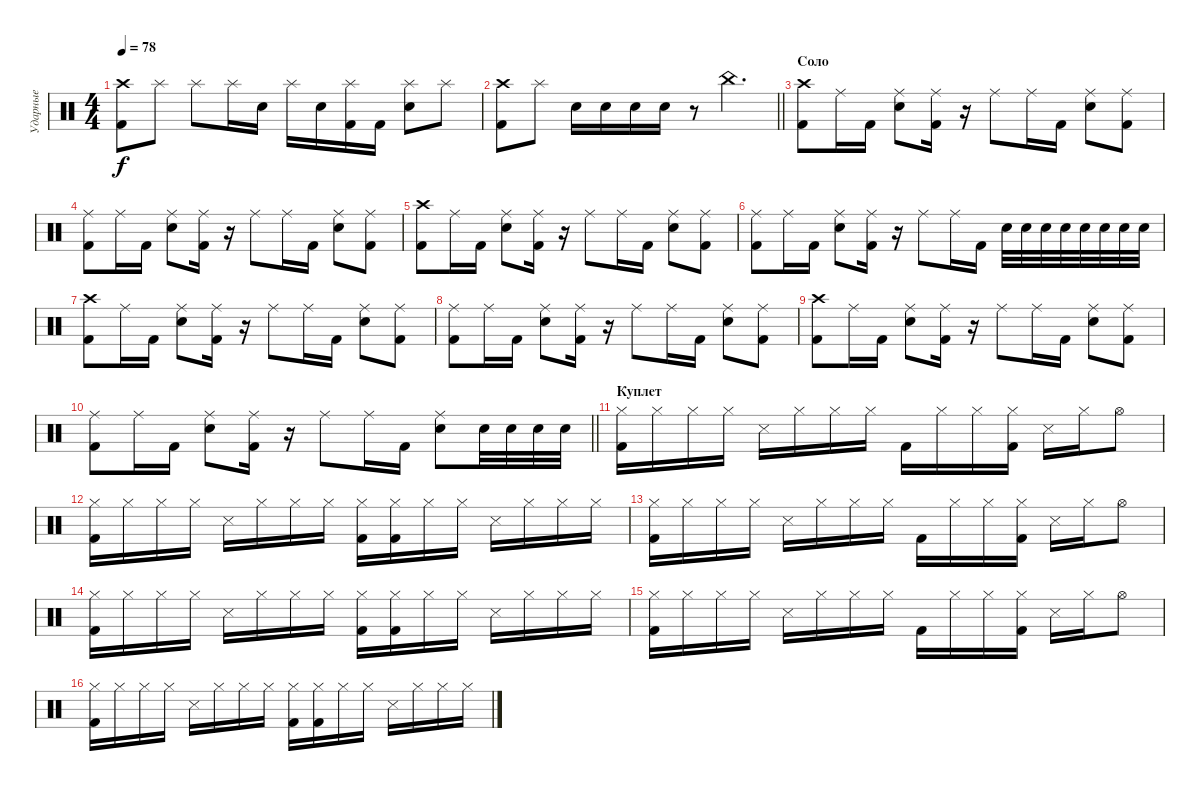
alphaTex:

\track ("Ударные" "Ударные") {instrument percussion}
\staff {score}
\articulation defaults
\ts (4 4)
\tempo 78
\clef neutral
\ks c
("Crash high (hit)" "Kick (hit) 2").8{dy f} "Splash (hit)".8 "Splash (hit)".8 "Splash (hit)".16 "Electric Snare (hit)".16 "Splash (hit)".16 "Electric Snare (hit)".16 ("Splash (hit)" "Kick (hit) 2").16 "Kick (hit) 2".16 ("Splash (hit)" "Electric Snare (hit)").8 "Splash (hit)".8 |
\barLineRight lightlight
("Crash high (hit)" "Kick (hit) 2").8 "Splash (hit)".8 "Electric Snare (hit)".16 "Electric Snare (hit)".16 "Electric Snare (hit)".16 "Electric Snare (hit)".16 r.8 "China (hit)".4{d} |
\section ("" "Соло")
("Crash high (hit)" "Kick (hit) 2").8 "Ride (middle)".16 "Kick (hit) 2".16 ("Ride (middle)" "Electric Snare (hit)").8 ("Ride (middle)" "Kick (hit) 2").16 r.16 "Ride (middle)".8 "Ride (middle)".16 "Kick (hit) 2".16 ("Electric Snare (hit)" "Ride (middle)").8 ("Kick (hit) 2" "Ride (middle)").8 |
("Ride (middle)" "Kick (hit) 2").8 "Ride (middle)".16 "Kick (hit) 2".16 ("Ride (middle)" "Electric Snare (hit)").8 ("Ride (middle)" "Kick (hit) 2").16 r.16 "Ride (middle)".8 "Ride (middle)".16 "Kick (hit) 2".16 ("Electric Snare (hit)" "Ride (middle)").8 ("Kick (hit) 2" "Ride (middle)").8 |
("Crash high (hit)" "Kick (hit) 2").8 "Ride (middle)".16 "Kick (hit) 2".16 ("Ride (middle)" "Electric Snare (hit)").8 ("Ride (middle)" "Kick (hit) 2").16 r.16 "Ride (middle)".8 "Ride (middle)".16 "Kick (hit) 2".16 ("Electric Snare (hit)" "Ride (middle)").8 ("Kick (hit) 2" "Ride (middle)").8 |
("Ride (middle)" "Kick (hit) 2").8 "Ride (middle)".16 "Kick (hit) 2".16 ("Ride (middle)" "Electric Snare (hit)").8 ("Ride (middle)" "Kick (hit) 2").16 r.16 "Ride (middle)".8 "Ride (middle)".16 "Kick (hit) 2".16 "Snare (hit) 2".32 "Snare (hit) 2".32 "Snare (hit) 2".32 "Snare (hit) 2".32 "Snare (hit) 2".32 "Snare (hit) 2".32 "Snare (hit) 2".32 "Snare (hit) 2".32 |
("Crash high (hit)" "Kick (hit) 2").8 "Ride (middle)".16 "Kick (hit) 2".16 ("Ride (middle)" "Electric Snare (hit)").8 ("Ride (middle)" "Kick (hit) 2").16 r.16 "Ride (middle)".8 "Ride (middle)".16 "Kick (hit) 2".16 ("Electric Snare (hit)" "Ride (middle)").8 ("Kick (hit) 2" "Ride (middle)").8 |
("Ride (middle)" "Kick (hit) 2").8 "Ride (middle)".16 "Kick (hit) 2".16 ("Ride (middle)" "Electric Snare (hit)").8 ("Ride (middle)" "Kick (hit) 2").16 r.16 "Ride (middle)".8 "Ride (middle)".16 "Kick (hit) 2".16 ("Electric Snare (hit)" "Ride (middle)").8 ("Kick (hit) 2" "Ride (middle)").8 |
("Crash high (hit)" "Kick (hit) 2").8 "Ride (middle)".16 "Kick (hit) 2".16 ("Ride (middle)" "Electric Snare (hit)").8 ("Ride (middle)" "Kick (hit) 2").16 r.16 "Ride (middle)".8 "Ride (middle)".16 "Kick (hit) 2".16 ("Electric Snare (hit)" "Ride (middle)").8 ("Kick (hit) 2" "Ride (middle)").8 |
\barLineRight lightlight
("Ride (middle)" "Kick (hit) 2").8 "Ride (middle)".16 "Kick (hit) 2".16 ("Ride (middle)" "Electric Snare (hit)").8 ("Ride (middle)" "Kick (hit) 2").16 r.16 "Ride (middle)".8 "Ride (middle)".16 "Kick (hit) 2".16 ("Electric Snare (hit)" "Ride (middle)").8 "Snare (hit) 2".32 "Snare (hit) 2".32 "Snare (hit) 2".32 "Snare (hit) 2".32 |
\section ("" "Куплет")
("Kick (hit) 2" "Hi-Hat (closed)").16 "Hi-Hat (closed)".16 "Hi-Hat (closed)".16 "Hi-Hat (closed)".16 "Snare (side stick) 3".16 "Hi-Hat (closed)".16 "Hi-Hat (closed)".16 "Hi-Hat (closed)".16 "Kick (hit) 2".16 "Hi-Hat (closed)".16 "Hi-Hat (closed)".16 ("Kick (hit) 2" "Hi-Hat (closed)").16 "Snare (side stick) 3".16 "Hi-Hat (closed)".16 "Hi-Hat (open)".8 |
("Hi-Hat (closed)" "Kick (hit) 2").16 "Hi-Hat (closed)".16 "Hi-Hat (closed)".16 "Hi-Hat (closed)".16 "Snare (side stick) 3".16 "Hi-Hat (closed)".16 "Hi-Hat (closed)".16 "Hi-Hat (closed)".16 ("Kick (hit) 2" "Hi-Hat (closed)").16 ("Hi-Hat (closed)" "Kick (hit) 2").16 "Hi-Hat (closed)".16 "Hi-Hat (closed)".16 "Snare (side stick) 3".16 "Hi-Hat (closed)".16 "Hi-Hat (closed)".16 "Hi-Hat (closed)".16 |
("Kick (hit) 2" "Hi-Hat (closed)").16 "Hi-Hat (closed)".16 "Hi-Hat (closed)".16 "Hi-Hat (closed)".16 "Snare (side stick) 3".16 "Hi-Hat (closed)".16 "Hi-Hat (closed)".16 "Hi-Hat (closed)".16 "Kick (hit) 2".16 "Hi-Hat (closed)".16 "Hi-Hat (closed)".16 ("Kick (hit) 2" "Hi-Hat (closed)").16 "Snare (side stick) 3".16 "Hi-Hat (closed)".16 "Hi-Hat (open)".8 |
("Hi-Hat (closed)" "Kick (hit) 2").16 "Hi-Hat (closed)".16 "Hi-Hat (closed)".16 "Hi-Hat (closed)".16 "Snare (side stick) 3".16 "Hi-Hat (closed)".16 "Hi-Hat (closed)".16 "Hi-Hat (closed)".16 ("Kick (hit) 2" "Hi-Hat (closed)").16 ("Hi-Hat (closed)" "Kick (hit) 2").16 "Hi-Hat (closed)".16 "Hi-Hat (closed)".16 "Snare (side stick) 3".16 "Hi-Hat (closed)".16 "Hi-Hat (closed)".16 "Hi-Hat (closed)".16 |
("Kick (hit) 2" "Hi-Hat (closed)").16 "Hi-Hat (closed)".16 "Hi-Hat (closed)".16 "Hi-Hat (closed)".16 "Snare (side stick) 3".16 "Hi-Hat (closed)".16 "Hi-Hat (closed)".16 "Hi-Hat (closed)".16 "Kick (hit) 2".16 "Hi-Hat (closed)".16 "Hi-Hat (closed)".16 ("Kick (hit) 2" "Hi-Hat (closed)").16 "Snare (side stick) 3".16 "Hi-Hat (closed)".16 "Hi-Hat (open)".8 |
("Hi-Hat (closed)" "Kick (hit) 2").16 "Hi-Hat (closed)".16 "Hi-Hat (closed)".16 "Hi-Hat (closed)".16 "Snare (side stick) 3".16 "Hi-Hat (closed)".16 "Hi-Hat (closed)".16 "Hi-Hat (closed)".16 ("Kick (hit) 2" "Hi-Hat (closed)").16 ("Hi-Hat (closed)" "Kick (hit) 2").16 "Hi-Hat (closed)".16 "Hi-Hat (closed)".16 "Snare (side stick) 3".16 "Hi-Hat (closed)".16 "Hi-Hat (closed)".16 "Hi-Hat (closed)".16
